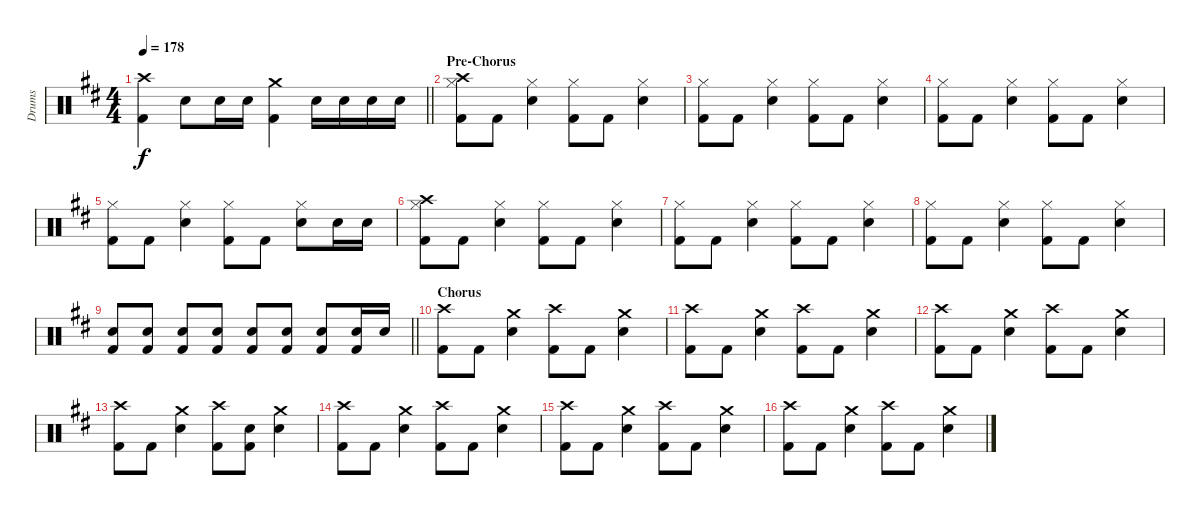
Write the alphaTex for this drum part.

\track ("Drums" "Drums") {instrument percussion}
\staff {score}
\articulation defaults
\ts (4 4)
\tempo 178
\clef neutral
\barLineRight lightlight
\ks d
("Kick (hit) 2" "Crash high (hit)").4{dy f} "Snare (hit) 2".8 "Snare (hit) 2".16 "Snare (hit) 2".16 ("Kick (hit) 2" "Crash medium (hit)").4 "Snare (hit) 2".16 "Snare (hit) 2".16 "Snare (hit) 2".16 "Snare (hit) 2".16 |
\section ("" "Pre-Chorus")
("Kick (hit) 2" "Crash high (hit)" "Hi-Hat (closed)").8 "Kick (hit) 2".8 ("Snare (hit) 2" "Hi-Hat (closed)").4 ("Kick (hit) 2" "Hi-Hat (closed)").8 "Kick (hit) 2".8 ("Snare (hit) 2" "Hi-Hat (closed)").4 |
("Kick (hit) 2" "Hi-Hat (closed)").8 "Kick (hit) 2".8 ("Snare (hit) 2" "Hi-Hat (closed)").4 ("Kick (hit) 2" "Hi-Hat (closed)").8 "Kick (hit) 2".8 ("Snare (hit) 2" "Hi-Hat (closed)").4 |
("Kick (hit) 2" "Hi-Hat (closed)").8 "Kick (hit) 2".8 ("Snare (hit) 2" "Hi-Hat (closed)").4 ("Kick (hit) 2" "Hi-Hat (closed)").8 "Kick (hit) 2".8 ("Snare (hit) 2" "Hi-Hat (closed)").4 |
("Kick (hit) 2" "Hi-Hat (closed)").8 "Kick (hit) 2".8 ("Snare (hit) 2" "Hi-Hat (closed)").4 ("Kick (hit) 2" "Hi-Hat (closed)").8 "Kick (hit) 2".8 ("Snare (hit) 2" "Hi-Hat (closed)").8 "Snare (hit) 2".16 "Snare (hit) 2".16 |
("Kick (hit) 2" "Crash high (hit)" "Hi-Hat (closed)").8 "Kick (hit) 2".8 ("Snare (hit) 2" "Hi-Hat (closed)").4 ("Kick (hit) 2" "Hi-Hat (closed)").8 "Kick (hit) 2".8 ("Snare (hit) 2" "Hi-Hat (closed)").4 |
("Kick (hit) 2" "Hi-Hat (closed)").8 "Kick (hit) 2".8 ("Snare (hit) 2" "Hi-Hat (closed)").4 ("Kick (hit) 2" "Hi-Hat (closed)").8 "Kick (hit) 2".8 ("Snare (hit) 2" "Hi-Hat (closed)").4 |
("Kick (hit) 2" "Hi-Hat (closed)").8 "Kick (hit) 2".8 ("Snare (hit) 2" "Hi-Hat (closed)").4 ("Kick (hit) 2" "Hi-Hat (closed)").8 "Kick (hit) 2".8 ("Snare (hit) 2" "Hi-Hat (closed)").4 |
\barLineRight lightlight
("Kick (hit) 2" "Snare (hit) 2").8 ("Kick (hit) 2" "Snare (hit) 2").8 ("Kick (hit) 2" "Snare (hit) 2").8 ("Kick (hit) 2" "Snare (hit) 2").8 ("Kick (hit) 2" "Snare (hit) 2").8 ("Kick (hit) 2" "Snare (hit) 2").8 ("Kick (hit) 2" "Snare (hit) 2").8 ("Kick (hit) 2" "Snare (hit) 2").16 "Snare (hit) 2".16 |
\section ("" "Chorus")
("Kick (hit) 2" "Crash high (hit)").8 "Kick (hit) 2".8 ("Crash medium (hit)" "Snare (hit) 2").4 ("Kick (hit) 2" "Crash high (hit)").8 "Kick (hit) 2".8 ("Crash medium (hit)" "Snare (hit) 2").4 |
("Kick (hit) 2" "Crash high (hit)").8 "Kick (hit) 2".8 ("Crash medium (hit)" "Snare (hit) 2").4 ("Kick (hit) 2" "Crash high (hit)").8 "Kick (hit) 2".8 ("Crash medium (hit)" "Snare (hit) 2").4 |
("Kick (hit) 2" "Crash high (hit)").8 "Kick (hit) 2".8 ("Crash medium (hit)" "Snare (hit) 2").4 ("Kick (hit) 2" "Crash high (hit)").8 "Kick (hit) 2".8 ("Crash medium (hit)" "Snare (hit) 2").4 |
("Kick (hit) 2" "Crash high (hit)").8 "Kick (hit) 2".8 ("Crash medium (hit)" "Snare (hit) 2").4 ("Kick (hit) 2" "Crash high (hit)").8 ("Kick (hit) 2" "Snare (hit) 2").8 ("Crash medium (hit)" "Snare (hit) 2").4 |
("Kick (hit) 2" "Crash high (hit)").8 "Kick (hit) 2".8 ("Crash medium (hit)" "Snare (hit) 2").4 ("Kick (hit) 2" "Crash high (hit)").8 "Kick (hit) 2".8 ("Crash medium (hit)" "Snare (hit) 2").4 |
("Kick (hit) 2" "Crash high (hit)").8 "Kick (hit) 2".8 ("Crash medium (hit)" "Snare (hit) 2").4 ("Kick (hit) 2" "Crash high (hit)").8 "Kick (hit) 2".8 ("Crash medium (hit)" "Snare (hit) 2").4 |
("Kick (hit) 2" "Crash high (hit)").8 "Kick (hit) 2".8 ("Crash medium (hit)" "Snare (hit) 2").4 ("Kick (hit) 2" "Crash high (hit)").8 "Kick (hit) 2".8 ("Crash medium (hit)" "Snare (hit) 2").4
